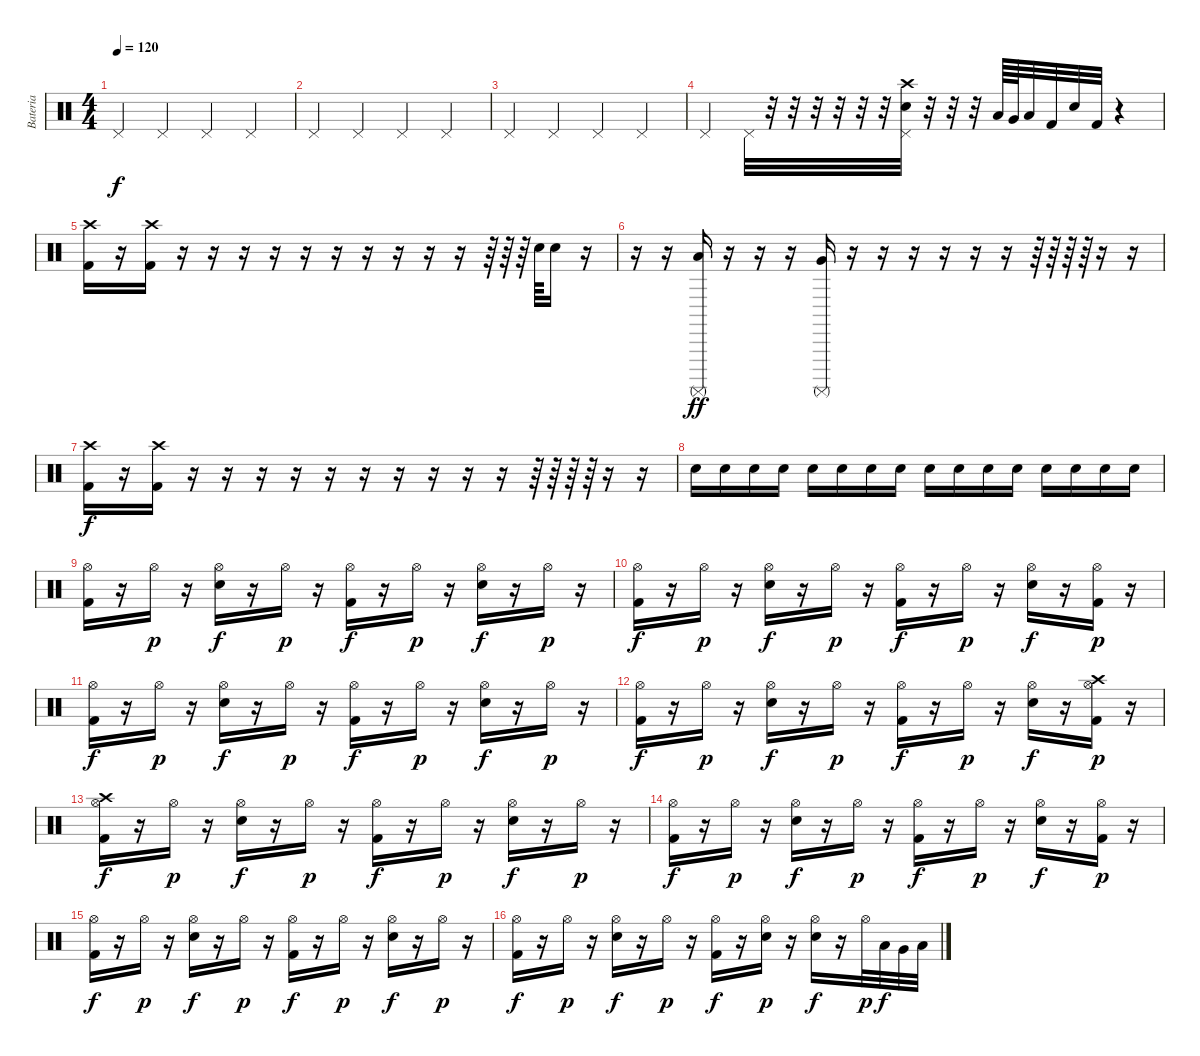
\track ("Bateria" "Bateria") {instrument percussion}
\staff {score}
\articulation defaults
\ts (4 4)
\tempo 120
\clef neutral
\ks c "Pedal Hi-Hat (hit)".4{dy f} "Pedal Hi-Hat (hit)".4 "Pedal Hi-Hat (hit)".4 "Pedal Hi-Hat (hit)".4
|
"Pedal Hi-Hat (hit)".4 "Pedal Hi-Hat (hit)".4 "Pedal Hi-Hat (hit)".4 "Pedal Hi-Hat (hit)".4 |
"Pedal Hi-Hat (hit)".4 "Pedal Hi-Hat (hit)".4 "Pedal Hi-Hat (hit)".4 "Pedal Hi-Hat (hit)".4 |
"Pedal Hi-Hat (hit)".4 "Pedal Hi-Hat (hit)".32 r.32 r.32 r.32 r.32 r.32 r.32 ("Pedal Hi-Hat (hit)" "Electric Snare (hit)" "Crash high (hit)").32 r.32 r.32 r.32 "Low Tom (hit)".64 "Very Low Tom (hit)".64 "Low Floor Tom (hit)".32 "Kick (hit) 2".32 "Snare (hit)".32 "Kick (hit) 2".32 r.4 |
("Kick (hit) 2" "Crash high (hit)").16 r.16 ("Kick (hit) 2" "Crash high (hit)").16 r.16 r.16 r.16 r.16 r.16 r.16 r.16 r.16 r.16 r.16 r.64 r.64 r.64 "Electric Snare (hit)".64 "Electric Snare (hit)".16 r.16 |
r.16 r.16 ("Surdo (mute)" "Low Tom (hit)").16{dy ff} r.16 r.16 r.16 ("Surdo (mute)" "Very Low Tom (hit)").16 r.16 r.16 r.16 r.16 r.16 r.16 r.64 r.64 r.64 r.64 r.16 r.16 |
("Kick (hit) 2" "Crash high (hit)").16{dy f} r.16 ("Kick (hit) 2" "Crash high (hit)").16 r.16 r.16 r.16 r.16 r.16 r.16 r.16 r.16 r.16 r.16 r.64 r.64 r.64 r.64 r.16 r.16 |
"Electric Snare (hit)".16 "Electric Snare (hit)".16 "Electric Snare (hit)".16 "Electric Snare (hit)".16 "Electric Snare (hit)".16 "Electric Snare (hit)".16 "Electric Snare (hit)".16 "Electric Snare (hit)".16 "Electric Snare (hit)".16 "Electric Snare (hit)".16 "Electric Snare (hit)".16 "Electric Snare (hit)".16 "Electric Snare (hit)".16 "Electric Snare (hit)".16 "Electric Snare (hit)".16 "Electric Snare (hit)".16 |
("Kick (hit) 2" "Hi-Hat (open)").16 r.16 "Hi-Hat (open)".16{dy p} r.16 ("Electric Snare (hit)" "Hi-Hat (open)").16{dy f} r.16 "Hi-Hat (open)".16{dy p} r.16 ("Kick (hit) 2" "Hi-Hat (open)").16{dy f} r.16 "Hi-Hat (open)".16{dy p} r.16 ("Electric Snare (hit)" "Hi-Hat (open)").16{dy f} r.16 "Hi-Hat (open)".16{dy p} r.16 |
("Kick (hit) 2" "Hi-Hat (open)").16{dy f} r.16 "Hi-Hat (open)".16{dy p} r.16 ("Electric Snare (hit)" "Hi-Hat (open)").16{dy f} r.16 "Hi-Hat (open)".16{dy p} r.16 ("Kick (hit) 2" "Hi-Hat (open)").16{dy f} r.16 "Hi-Hat (open)".16{dy p} r.16 ("Electric Snare (hit)" "Hi-Hat (open)").16{dy f} r.16 ("Kick (hit) 2" "Hi-Hat (open)").16{dy p} r.16 |
("Kick (hit) 2" "Hi-Hat (open)").16{dy f} r.16 "Hi-Hat (open)".16{dy p} r.16 ("Electric Snare (hit)" "Hi-Hat (open)").16{dy f} r.16 "Hi-Hat (open)".16{dy p} r.16 ("Kick (hit) 2" "Hi-Hat (open)").16{dy f} r.16 "Hi-Hat (open)".16{dy p} r.16 ("Electric Snare (hit)" "Hi-Hat (open)").16{dy f} r.16 "Hi-Hat (open)".16{dy p} r.16 |
("Kick (hit) 2" "Hi-Hat (open)").16{dy f} r.16 "Hi-Hat (open)".16{dy p} r.16 ("Electric Snare (hit)" "Hi-Hat (open)").16{dy f} r.16 "Hi-Hat (open)".16{dy p} r.16 ("Kick (hit) 2" "Hi-Hat (open)").16{dy f} r.16 "Hi-Hat (open)".16{dy p} r.16 ("Electric Snare (hit)" "Hi-Hat (open)").16{dy f} r.16 ("Kick (hit) 2" "Crash high (hit)" "Hi-Hat (open)").16{dy p} r.16 |
("Kick (hit) 2" "Crash high (hit)" "Hi-Hat (open)").16{dy f} r.16 "Hi-Hat (open)".16{dy p} r.16 ("Electric Snare (hit)" "Hi-Hat (open)").16{dy f} r.16 "Hi-Hat (open)".16{dy p} r.16 ("Kick (hit) 2" "Hi-Hat (open)").16{dy f} r.16 "Hi-Hat (open)".16{dy p} r.16 ("Electric Snare (hit)" "Hi-Hat (open)").16{dy f} r.16 "Hi-Hat (open)".16{dy p} r.16 |
("Kick (hit) 2" "Hi-Hat (open)").16{dy f} r.16 "Hi-Hat (open)".16{dy p} r.16 ("Electric Snare (hit)" "Hi-Hat (open)").16{dy f} r.16 "Hi-Hat (open)".16{dy p} r.16 ("Kick (hit) 2" "Hi-Hat (open)").16{dy f} r.16 "Hi-Hat (open)".16{dy p} r.16 ("Electric Snare (hit)" "Hi-Hat (open)").16{dy f} r.16 ("Kick (hit) 2" "Hi-Hat (open)").16{dy p} r.16 |
("Kick (hit) 2" "Hi-Hat (open)").16{dy f} r.16 "Hi-Hat (open)".16{dy p} r.16 ("Electric Snare (hit)" "Hi-Hat (open)").16{dy f} r.16 "Hi-Hat (open)".16{dy p} r.16 ("Kick (hit) 2" "Hi-Hat (open)").16{dy f} r.16 "Hi-Hat (open)".16{dy p} r.16 ("Electric Snare (hit)" "Hi-Hat (open)").16{dy f} r.16 "Hi-Hat (open)".16{dy p} r.16 |
("Kick (hit) 2" "Hi-Hat (open)").16{dy f} r.16 "Hi-Hat (open)".16{dy p} r.16 ("Electric Snare (hit)" "Hi-Hat (open)").16{dy f} r.16 "Hi-Hat (open)".16{dy p} r.16 ("Kick (hit) 2" "Hi-Hat (open)").16{dy f} r.16 ("Electric Snare (hit)" "Hi-Hat (open)").16{dy p} r.16 ("Electric Snare (hit)" "Hi-Hat (open)").16{dy f} r.16 "Hi-Hat (open)".32{dy p} "Low Tom (hit)".32{dy f} "Very Low Tom (hit)".32 "Low Floor Tom (hit)".32
